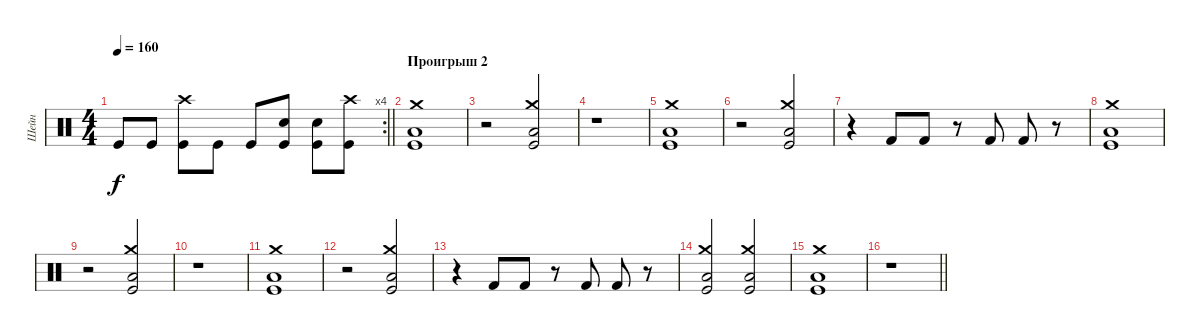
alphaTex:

\track ("Шейн" "Шейн") {instrument percussion}
\staff {score}
\articulation defaults
\rc 4
\ts (4 4)
\tempo 160
\clef neutral
\barLineRight lightlight
\ks c "Kick (hit)".8{dy f} "Kick (hit)".8
("Kick (hit)" "Crash high (hit)").8 "Kick (hit)".8 "Kick (hit)".8 ("Kick (hit)" "Snare (hit) 2").8 ("Kick (hit)" "Snare (hit) 2").8 ("Kick (hit)" "Crash high (hit)").8 |
\section ("" "Проигрыш 2")
("Kick (hit)" "Crash medium (hit)" "Low Floor Tom (hit)").1 |
r.2 ("Kick (hit)" "Crash medium (hit)" "Low Floor Tom (hit)").2 |
r.1 |
("Kick (hit)" "Crash medium (hit)" "Low Floor Tom (hit)").1 |
r.2 ("Kick (hit)" "Crash medium (hit)" "Low Floor Tom (hit)").2 |
r.4 "Kick (hit) 2".8 "Kick (hit) 2".8 r.8 "Kick (hit) 2".8 "Kick (hit) 2".8 r.8 |
("Kick (hit)" "Crash medium (hit)" "Low Floor Tom (hit)").1 |
r.2 ("Kick (hit)" "Crash medium (hit)" "Low Floor Tom (hit)").2 |
r.1 |
("Kick (hit)" "Crash medium (hit)" "Low Floor Tom (hit)").1 |
r.2 ("Kick (hit)" "Crash medium (hit)" "Low Floor Tom (hit)").2 |
r.4 "Kick (hit) 2".8 "Kick (hit) 2".8 r.8 "Kick (hit) 2".8 "Kick (hit) 2".8 r.8 |
("Kick (hit)" "Crash medium (hit)" "Low Floor Tom (hit)").2 ("Kick (hit)" "Crash medium (hit)" "Low Floor Tom (hit)").2 |
("Kick (hit)" "Crash medium (hit)" "Low Floor Tom (hit)").1 |
\barLineRight lightlight
r.1
